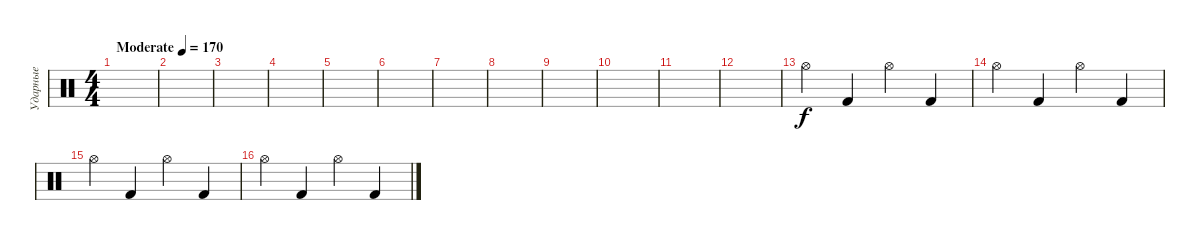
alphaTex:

\track ("Ударные" "Ударные") {instrument percussion}
\staff {score}
\articulation defaults
\ts (4 4)
\tempo (170 "Moderate")
\clef neutral
\ks c
|
|
|
|
|
|
|
|
|
|
|
|
"Hi-Hat (open)".4 "Kick (hit) 2".4 "Hi-Hat (open)".4 "Kick (hit) 2".4 |
"Hi-Hat (open)".4 "Kick (hit) 2".4 "Hi-Hat (open)".4 "Kick (hit) 2".4 |
"Hi-Hat (open)".4 "Kick (hit) 2".4 "Hi-Hat (open)".4 "Kick (hit) 2".4 |
"Hi-Hat (open)".4 "Kick (hit) 2".4 "Hi-Hat (open)".4 "Kick (hit) 2".4
